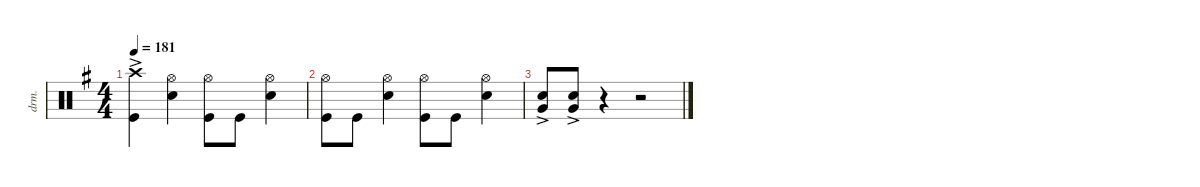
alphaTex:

\defaultSystemsLayout 4
\hideDynamics
\bracketExtendMode nobrackets
\track ("Drums" "drm.") {instrument percussion}
\staff {score}
\articulation defaults
\ts (4 4)
\tempo 181
\clef neutral
\ks g
("Crash high (hit)"{ac acc forcenatural} "Kick (hit)"{acc forcenatural}).4{dy f} ("Hi-Hat (open)"{acc forcenatural} "Snare (hit) 2"{acc forcenatural}).4 ("Kick (hit)"{acc forcenatural} "Hi-Hat (open)"{acc forcenatural}).8 "Kick (hit)"{acc forcenatural}.8 ("Hi-Hat (open)"{acc forcenatural} "Snare (hit) 2"{acc forcenatural}).4 |
("Kick (hit)"{acc forcenatural} "Hi-Hat (open)"{acc forcenatural}).8 "Kick (hit)"{acc forcenatural}.8 ("Hi-Hat (open)"{acc forcenatural} "Snare (hit) 2"{acc forcenatural}).4 ("Kick (hit)"{acc forcenatural} "Hi-Hat (open)"{acc forcenatural}).8 "Kick (hit)"{acc forcenatural}.8 ("Hi-Hat (open)"{acc forcenatural} "Snare (hit) 2"{acc forcenatural}).4 |
("Snare (hit) 2"{ac acc forcenatural} "Very Low Tom (hit)"{ac acc forcenatural}).8 ("Snare (hit) 2"{ac acc forcenatural} "Very Low Tom (hit)"{ac acc forcenatural}).8 r.4 r.2
